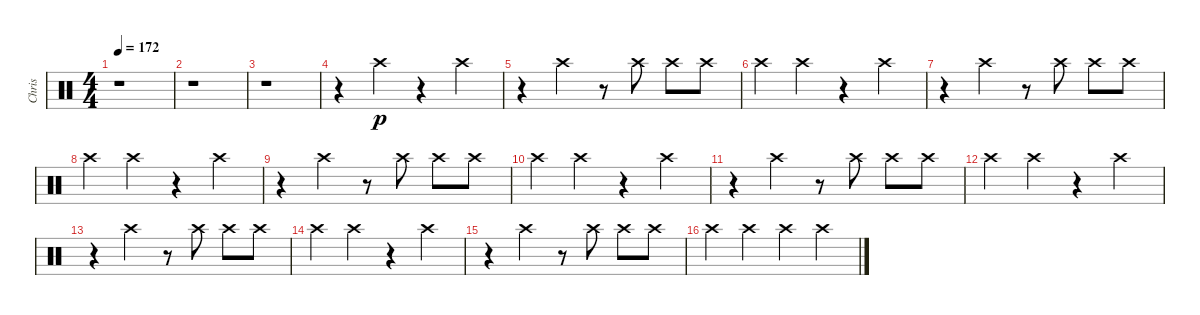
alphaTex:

\track ("Chris" "Chris") {instrument percussion}
\staff {score}
\articulation defaults
\ts (4 4)
\tempo 172
\clef neutral
\ks c
r.1{dy f} |
r.1 |
r.1 |
r.4 "Crash high (hit)".4{dy p} r.4 "Crash high (hit)".4 |
r.4 "Crash high (hit)".4 r.8 "Crash high (hit)".8 "Crash high (hit)".8 "Crash high (hit)".8 |
"Crash high (hit)".4 "Crash high (hit)".4 r.4 "Crash high (hit)".4 |
r.4 "Crash high (hit)".4 r.8 "Crash high (hit)".8 "Crash high (hit)".8 "Crash high (hit)".8 |
"Crash high (hit)".4 "Crash high (hit)".4 r.4 "Crash high (hit)".4 |
r.4 "Crash high (hit)".4 r.8 "Crash high (hit)".8 "Crash high (hit)".8 "Crash high (hit)".8 |
"Crash high (hit)".4 "Crash high (hit)".4 r.4 "Crash high (hit)".4 |
r.4 "Crash high (hit)".4 r.8 "Crash high (hit)".8 "Crash high (hit)".8 "Crash high (hit)".8 |
"Crash high (hit)".4 "Crash high (hit)".4 r.4 "Crash high (hit)".4 |
r.4 "Crash high (hit)".4 r.8 "Crash high (hit)".8 "Crash high (hit)".8 "Crash high (hit)".8 |
"Crash high (hit)".4 "Crash high (hit)".4 r.4 "Crash high (hit)".4 |
r.4 "Crash high (hit)".4 r.8 "Crash high (hit)".8 "Crash high (hit)".8 "Crash high (hit)".8 |
"Crash high (hit)".4 "Crash high (hit)".4 "Crash high (hit)".4 "Crash high (hit)".4
